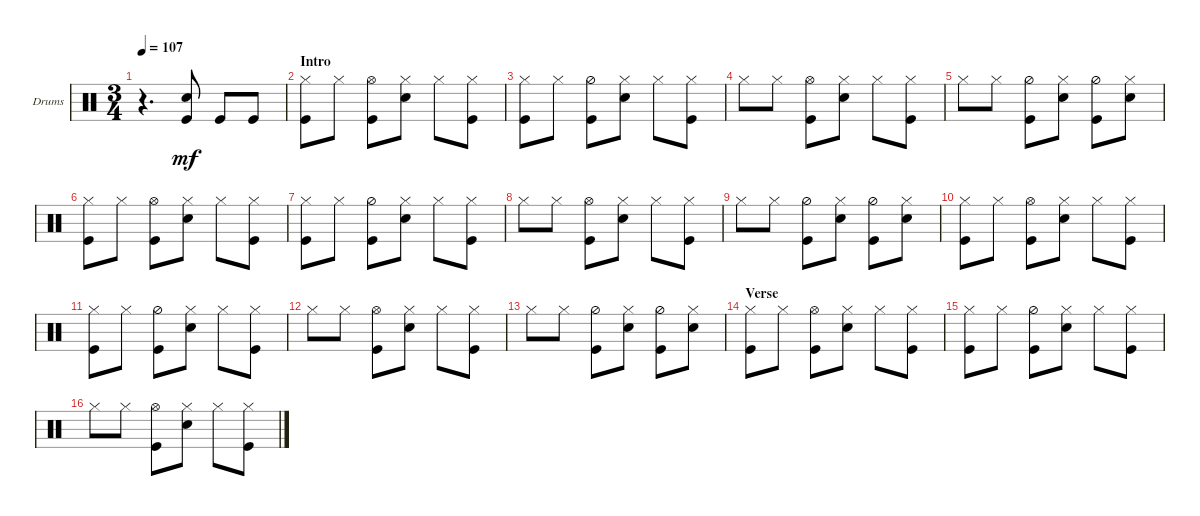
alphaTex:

\defaultSystemsLayout 4
\bracketExtendMode groupsimilarinstruments
\firstSystemTrackNameOrientation horizontal
\otherSystemsTrackNameOrientation horizontal
\track ("Drums" "Drums") {instrument percussion}
\staff {score}
\articulation defaults
\ts (3 4)
\tempo 107
\clef neutral
\ks c
r.4{d dy mf} ("Snare (hit) 2" "Kick (hit)").8 "Kick (hit)".8 "Kick (hit)".8 |
\section ("" "Intro")
("Hi-Hat (closed)" "Kick (hit)").8 "Hi-Hat (closed)".8 ("Hi-Hat (open)" "Kick (hit)").8 ("Snare (hit) 2" "Hi-Hat (closed)").8 "Hi-Hat (closed)".8 ("Hi-Hat (closed)" "Kick (hit)").8 |
("Hi-Hat (closed)" "Kick (hit)").8 "Hi-Hat (closed)".8 ("Hi-Hat (half)" "Kick (hit)").8 ("Hi-Hat (closed)" "Snare (hit) 2").8 "Hi-Hat (closed)".8 ("Hi-Hat (closed)" "Kick (hit)").8 |
"Hi-Hat (closed)".8 "Hi-Hat (closed)".8 ("Hi-Hat (open)" "Kick (hit)").8 ("Snare (hit) 2" "Hi-Hat (closed)").8 "Hi-Hat (closed)".8 ("Kick (hit)" "Hi-Hat (closed)").8 |
"Hi-Hat (closed)".8 "Hi-Hat (closed)".8 ("Hi-Hat (half)" "Kick (hit)").8 ("Hi-Hat (closed)" "Snare (hit) 2").8 ("Hi-Hat (half)" "Kick (hit)").8 ("Hi-Hat (closed)" "Snare (hit) 2").8 |
("Hi-Hat (closed)" "Kick (hit)").8 "Hi-Hat (closed)".8 ("Hi-Hat (open)" "Kick (hit)").8 ("Snare (hit) 2" "Hi-Hat (closed)").8 "Hi-Hat (closed)".8 ("Hi-Hat (closed)" "Kick (hit)").8 |
("Hi-Hat (closed)" "Kick (hit)").8 "Hi-Hat (closed)".8 ("Hi-Hat (half)" "Kick (hit)").8 ("Hi-Hat (closed)" "Snare (hit) 2").8 "Hi-Hat (closed)".8 ("Hi-Hat (closed)" "Kick (hit)").8 |
"Hi-Hat (closed)".8 "Hi-Hat (closed)".8 ("Hi-Hat (open)" "Kick (hit)").8 ("Snare (hit) 2" "Hi-Hat (closed)").8 "Hi-Hat (closed)".8 ("Kick (hit)" "Hi-Hat (closed)").8 |
"Hi-Hat (closed)".8 "Hi-Hat (closed)".8 ("Hi-Hat (half)" "Kick (hit)").8 ("Hi-Hat (closed)" "Snare (hit) 2").8 ("Hi-Hat (half)" "Kick (hit)").8 ("Hi-Hat (closed)" "Snare (hit) 2").8 |
("Hi-Hat (closed)" "Kick (hit)").8 "Hi-Hat (closed)".8 ("Hi-Hat (open)" "Kick (hit)").8 ("Snare (hit) 2" "Hi-Hat (closed)").8 "Hi-Hat (closed)".8 ("Hi-Hat (closed)" "Kick (hit)").8 |
("Hi-Hat (closed)" "Kick (hit)").8 "Hi-Hat (closed)".8 ("Hi-Hat (half)" "Kick (hit)").8 ("Hi-Hat (closed)" "Snare (hit) 2").8 "Hi-Hat (closed)".8 ("Hi-Hat (closed)" "Kick (hit)").8 |
"Hi-Hat (closed)".8 "Hi-Hat (closed)".8 ("Hi-Hat (open)" "Kick (hit)").8 ("Snare (hit) 2" "Hi-Hat (closed)").8 "Hi-Hat (closed)".8 ("Kick (hit)" "Hi-Hat (closed)").8 |
"Hi-Hat (closed)".8 "Hi-Hat (closed)".8 ("Hi-Hat (half)" "Kick (hit)").8 ("Hi-Hat (closed)" "Snare (hit) 2").8 ("Hi-Hat (half)" "Kick (hit)").8 ("Hi-Hat (closed)" "Snare (hit) 2").8 |
\section ("" "Verse")
("Hi-Hat (closed)" "Kick (hit)").8 "Hi-Hat (closed)".8 ("Hi-Hat (open)" "Kick (hit)").8 ("Snare (hit) 2" "Hi-Hat (closed)").8 "Hi-Hat (closed)".8 ("Hi-Hat (closed)" "Kick (hit)").8 |
("Hi-Hat (closed)" "Kick (hit)").8 "Hi-Hat (closed)".8 ("Hi-Hat (half)" "Kick (hit)").8 ("Hi-Hat (closed)" "Snare (hit) 2").8 "Hi-Hat (closed)".8 ("Hi-Hat (closed)" "Kick (hit)").8 |
"Hi-Hat (closed)".8 "Hi-Hat (closed)".8 ("Hi-Hat (open)" "Kick (hit)").8 ("Snare (hit) 2" "Hi-Hat (closed)").8 "Hi-Hat (closed)".8 ("Kick (hit)" "Hi-Hat (closed)").8
